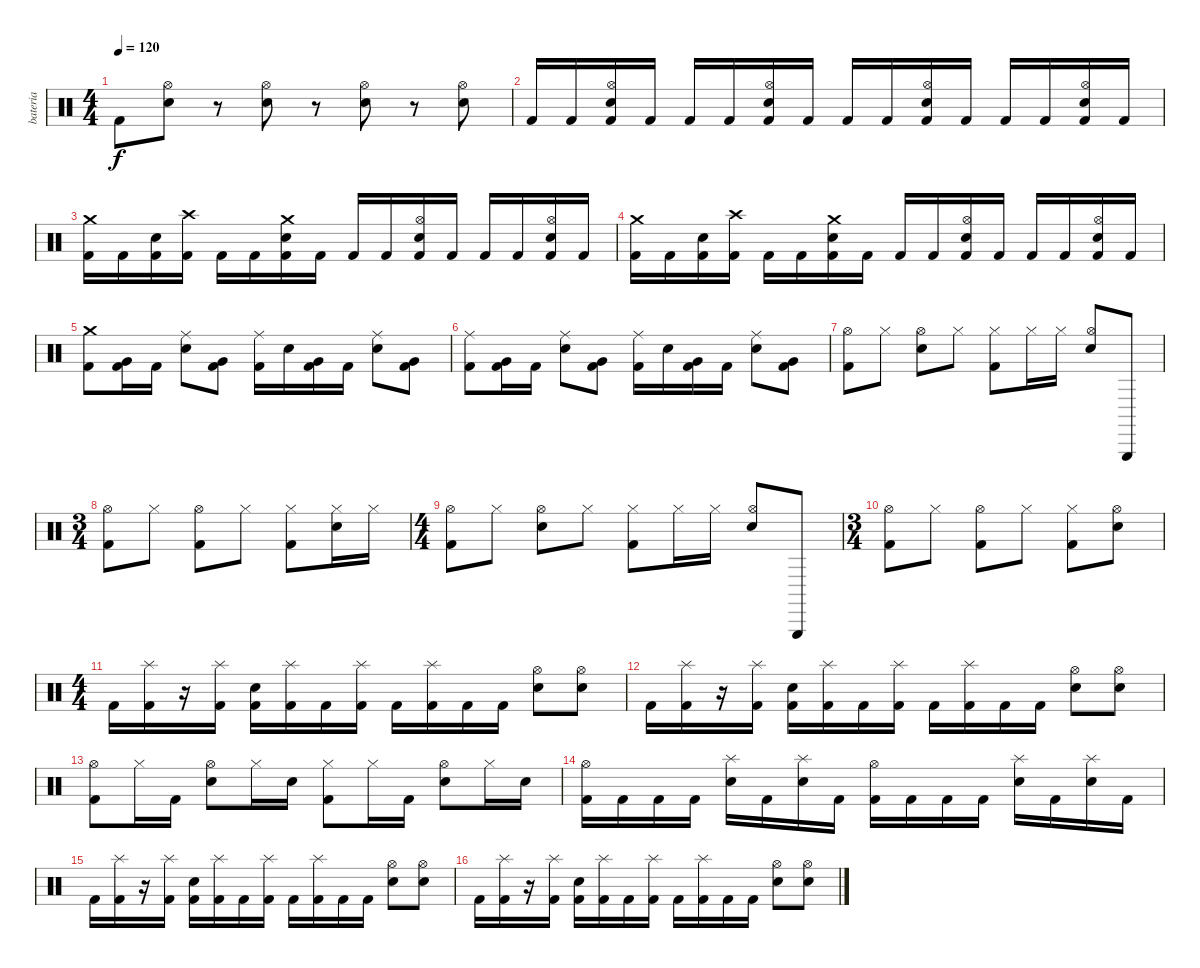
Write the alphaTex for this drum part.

\track ("bateria" "bateria") {instrument percussion}
\staff {score}
\articulation defaults
\ts (4 4)
\tempo 120
\clef neutral
\ks c "Kick (hit) 2".8{dy f}
("Hi-Hat (open)" "Electric Snare (hit)").8 r.8 ("Hi-Hat (open)" "Electric Snare (hit)").8 r.8 ("Hi-Hat (open)" "Electric Snare (hit)").8 r.8 ("Hi-Hat (open)" "Electric Snare (hit)").8 |
"Kick (hit) 2".16 "Kick (hit) 2".16 ("Hi-Hat (open)" "Electric Snare (hit)" "Kick (hit) 2").16 "Kick (hit) 2".16 "Kick (hit) 2".16 "Kick (hit) 2".16 ("Hi-Hat (open)" "Electric Snare (hit)" "Kick (hit) 2").16 "Kick (hit) 2".16 "Kick (hit) 2".16 "Kick (hit) 2".16 ("Hi-Hat (open)" "Electric Snare (hit)" "Kick (hit) 2").16 "Kick (hit) 2".16 "Kick (hit) 2".16 "Kick (hit) 2".16 ("Hi-Hat (open)" "Electric Snare (hit)" "Kick (hit) 2").16 "Kick (hit) 2".16 |
("Crash medium (hit)" "Kick (hit) 2").16 "Kick (hit) 2".16 ("Electric Snare (hit)" "Kick (hit) 2").16 ("Crash high (hit)" "Kick (hit) 2").16 "Kick (hit) 2".16 "Kick (hit) 2".16 ("Crash medium (hit)" "Electric Snare (hit)" "Kick (hit) 2").16 "Kick (hit) 2".16 "Kick (hit) 2".16 "Kick (hit) 2".16 ("Hi-Hat (open)" "Electric Snare (hit)" "Kick (hit) 2").16 "Kick (hit) 2".16 "Kick (hit) 2".16 "Kick (hit) 2".16 ("Hi-Hat (open)" "Electric Snare (hit)" "Kick (hit) 2").16 "Kick (hit) 2".16 |
("Crash medium (hit)" "Kick (hit) 2").16 "Kick (hit) 2".16 ("Electric Snare (hit)" "Kick (hit) 2").16 ("Crash high (hit)" "Kick (hit) 2").16 "Kick (hit) 2".16 "Kick (hit) 2".16 ("Crash medium (hit)" "Electric Snare (hit)" "Kick (hit) 2").16 "Kick (hit) 2".16 "Kick (hit) 2".16 "Kick (hit) 2".16 ("Hi-Hat (open)" "Electric Snare (hit)" "Kick (hit) 2").16 "Kick (hit) 2".16 "Kick (hit) 2".16 "Kick (hit) 2".16 ("Hi-Hat (open)" "Electric Snare (hit)" "Kick (hit) 2").16 "Kick (hit) 2".16 |
("Crash medium (hit)" "Kick (hit) 2").8 ("Very Low Tom (hit)" "Kick (hit) 2").16 "Kick (hit) 2".16 ("Ride (middle)" "Electric Snare (hit)").8 ("Very Low Tom (hit)" "Kick (hit) 2").8 ("Ride (middle)" "Kick (hit) 2").16 "Electric Snare (hit)".16 ("Very Low Tom (hit)" "Kick (hit) 2").16 "Kick (hit) 2".16 ("Ride (middle)" "Electric Snare (hit)").8 ("Very Low Tom (hit)" "Kick (hit) 2").8 |
("Ride (middle)" "Kick (hit) 2").8 ("Very Low Tom (hit)" "Kick (hit) 2").16 "Kick (hit) 2".16 ("Ride (middle)" "Electric Snare (hit)").8 ("Very Low Tom (hit)" "Kick (hit) 2").8 ("Ride (middle)" "Kick (hit) 2").16 "Electric Snare (hit)".16 ("Very Low Tom (hit)" "Kick (hit) 2").16 "Kick (hit) 2".16 ("Ride (middle)" "Electric Snare (hit)").8 ("Very Low Tom (hit)" "Kick (hit) 2").8 |
("Hi-Hat (open)" "Kick (hit) 2").8 "Hi-Hat (closed)".8 ("Hi-Hat (open)" "Electric Snare (hit)").8 "Hi-Hat (closed)".8 ("Hi-Hat (closed)" "Kick (hit) 2").8 "Hi-Hat (closed)".16 "Hi-Hat (closed)".16 ("Hi-Hat (open)" "Electric Snare (hit)").8 "Triangle (hit)".8 |
\ts (3 4)
("Hi-Hat (open)" "Kick (hit) 2").8 "Hi-Hat (closed)".8 ("Hi-Hat (open)" "Kick (hit) 2").8 "Hi-Hat (closed)".8 ("Hi-Hat (closed)" "Kick (hit) 2").8 ("Hi-Hat (closed)" "Electric Snare (hit)").16 "Hi-Hat (closed)".16 |
\ts (4 4)
("Hi-Hat (open)" "Kick (hit) 2").8 "Hi-Hat (closed)".8 ("Hi-Hat (open)" "Electric Snare (hit)").8 "Hi-Hat (closed)".8 ("Hi-Hat (closed)" "Kick (hit) 2").8 "Hi-Hat (closed)".16 "Hi-Hat (closed)".16 ("Hi-Hat (open)" "Electric Snare (hit)").8 "Triangle (hit)".8 |
\ts (3 4)
("Hi-Hat (open)" "Kick (hit) 2").8 "Hi-Hat (closed)".8 ("Hi-Hat (open)" "Kick (hit) 2").8 "Hi-Hat (closed)".8 ("Hi-Hat (closed)" "Kick (hit) 2").8 ("Hi-Hat (open)" "Electric Snare (hit)").8 |
\ts (4 4)
"Kick (hit) 2".16 ("Splash (hit)" "Kick (hit) 2").16 r.16 ("Splash (hit)" "Kick (hit) 2").16 ("Electric Snare (hit)" "Kick (hit) 2").16 ("Splash (hit)" "Kick (hit) 2").16 "Kick (hit) 2".16 ("Splash (hit)" "Kick (hit) 2").16 "Kick (hit) 2".16 ("Splash (hit)" "Kick (hit) 2").16 "Kick (hit) 2".16 "Kick (hit) 2".16 ("Hi-Hat (open)" "Electric Snare (hit)").8 ("Hi-Hat (open)" "Electric Snare (hit)").8 |
"Kick (hit) 2".16 ("Splash (hit)" "Kick (hit) 2").16 r.16 ("Splash (hit)" "Kick (hit) 2").16 ("Electric Snare (hit)" "Kick (hit) 2").16 ("Splash (hit)" "Kick (hit) 2").16 "Kick (hit) 2".16 ("Splash (hit)" "Kick (hit) 2").16 "Kick (hit) 2".16 ("Splash (hit)" "Kick (hit) 2").16 "Kick (hit) 2".16 "Kick (hit) 2".16 ("Hi-Hat (open)" "Electric Snare (hit)").8 ("Hi-Hat (open)" "Electric Snare (hit)").8 |
("Hi-Hat (open)" "Kick (hit) 2").8 "Hi-Hat (closed)".16 "Kick (hit) 2".16 ("Hi-Hat (open)" "Electric Snare (hit)").8 "Hi-Hat (closed)".16 "Electric Snare (hit)".16 ("Hi-Hat (closed)" "Kick (hit) 2").8 "Hi-Hat (closed)".16 "Kick (hit) 2".16 ("Hi-Hat (open)" "Electric Snare (hit)").8 "Hi-Hat (closed)".16 "Electric Snare (hit)".16 |
("Hi-Hat (open)" "Kick (hit) 2").16 "Kick (hit) 2".16 "Kick (hit) 2".16 "Kick (hit) 2".16 ("Splash (hit)" "Electric Snare (hit)").16 "Kick (hit) 2".16 ("Splash (hit)" "Electric Snare (hit)").16 "Kick (hit) 2".16 ("Hi-Hat (open)" "Kick (hit) 2").16 "Kick (hit) 2".16 "Kick (hit) 2".16 "Kick (hit) 2".16 ("Splash (hit)" "Electric Snare (hit)").16 "Kick (hit) 2".16 ("Splash (hit)" "Electric Snare (hit)").16 "Kick (hit) 2".16 |
"Kick (hit) 2".16 ("Splash (hit)" "Kick (hit) 2").16 r.16 ("Splash (hit)" "Kick (hit) 2").16 ("Electric Snare (hit)" "Kick (hit) 2").16 ("Splash (hit)" "Kick (hit) 2").16 "Kick (hit) 2".16 ("Splash (hit)" "Kick (hit) 2").16 "Kick (hit) 2".16 ("Splash (hit)" "Kick (hit) 2").16 "Kick (hit) 2".16 "Kick (hit) 2".16 ("Hi-Hat (open)" "Electric Snare (hit)").8 ("Hi-Hat (open)" "Electric Snare (hit)").8 |
"Kick (hit) 2".16 ("Splash (hit)" "Kick (hit) 2").16 r.16 ("Splash (hit)" "Kick (hit) 2").16 ("Electric Snare (hit)" "Kick (hit) 2").16 ("Splash (hit)" "Kick (hit) 2").16 "Kick (hit) 2".16 ("Splash (hit)" "Kick (hit) 2").16 "Kick (hit) 2".16 ("Splash (hit)" "Kick (hit) 2").16 "Kick (hit) 2".16 "Kick (hit) 2".16 ("Hi-Hat (open)" "Electric Snare (hit)").8 ("Hi-Hat (open)" "Electric Snare (hit)").8
